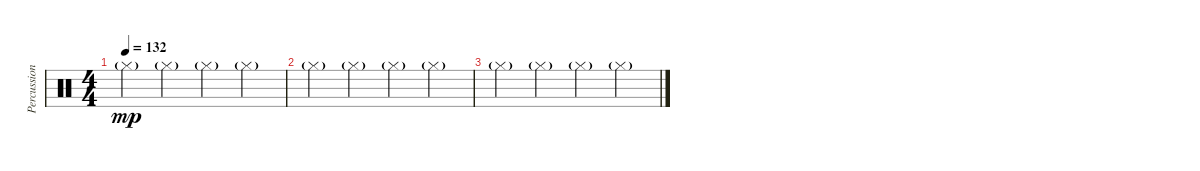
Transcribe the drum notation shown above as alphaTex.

\track ("Percussions" "Percussion") {instrument percussion}
\staff {score}
\articulation defaults
\ts (4 4)
\tempo 132
\clef neutral
\ks c "Hi-Hat (closed)"{g}.4{dy mp} "Hi-Hat (closed)"{g}.4 "Hi-Hat (closed)"{g}.4 "Hi-Hat (closed)"{g}.4
|
"Hi-Hat (closed)"{g}.4 "Hi-Hat (closed)"{g}.4 "Hi-Hat (closed)"{g}.4 "Hi-Hat (closed)"{g}.4 |
"Hi-Hat (closed)"{g}.4 "Hi-Hat (closed)"{g}.4 "Hi-Hat (closed)"{g}.4 "Hi-Hat (closed)"{g}.4
